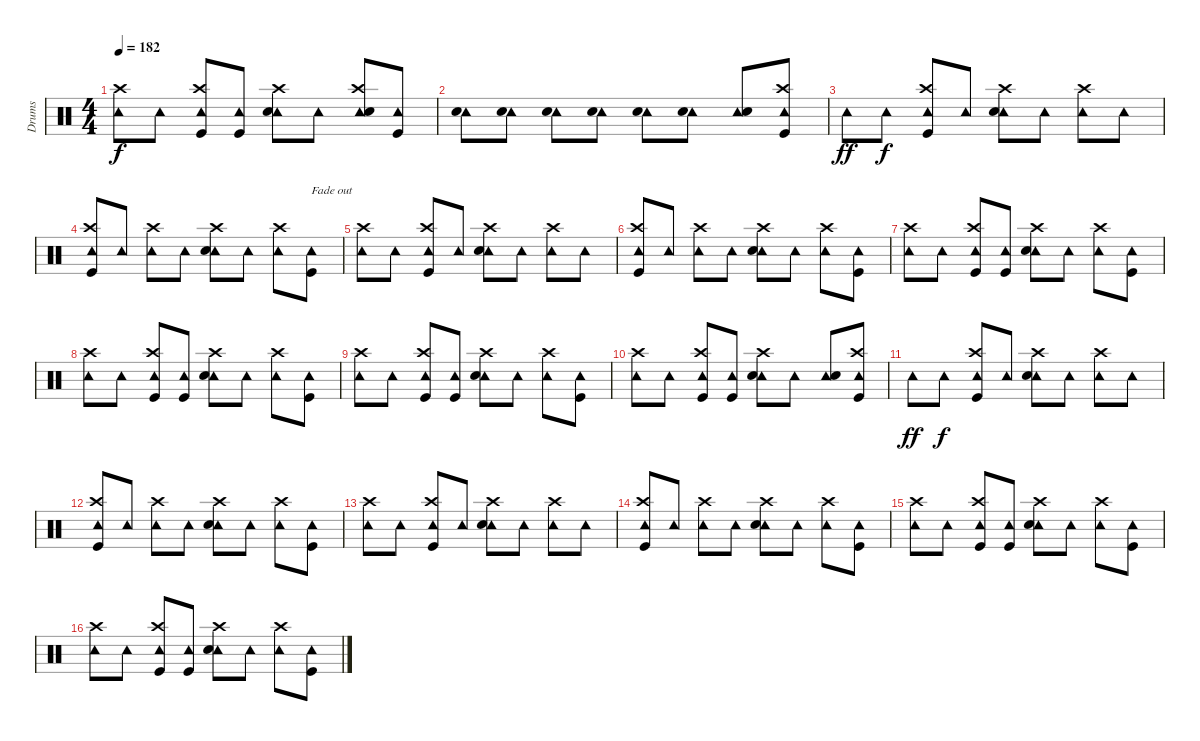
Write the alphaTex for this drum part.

\track ("Drums" "Drums") {instrument percussion}
\staff {score}
\articulation defaults
\ts (4 4)
\tempo 182
\clef neutral
\ks c
("Tambourine (hit)" "Crash high (hit)").8{dy f} "Tambourine (hit)".8 ("Tambourine (hit)" "Crash high (hit)" "Kick (hit)").8 ("Tambourine (hit)" "Kick (hit)").8 ("Tambourine (hit)" "Crash high (hit)" "Electric Snare (hit)").8 "Tambourine (hit)".8 ("Tambourine (hit)" "Electric Snare (hit)" "Crash high (hit)").8 ("Tambourine (hit)" "Kick (hit)").8 |
("Tambourine (hit)" "Electric Snare (hit)").8 ("Tambourine (hit)" "Electric Snare (hit)").8 ("Tambourine (hit)" "Electric Snare (hit)").8 ("Tambourine (hit)" "Electric Snare (hit)").8 ("Tambourine (hit)" "Electric Snare (hit)").8 ("Tambourine (hit)" "Electric Snare (hit)").8 ("Tambourine (hit)" "Electric Snare (hit)").8 ("Tambourine (hit)" "Crash high (hit)" "Kick (hit)").8 |
"Tambourine (hit)".8{dy ff} "Tambourine (hit)".8{dy f} ("Tambourine (hit)" "Crash high (hit)" "Kick (hit)").8 "Tambourine (hit)".8 ("Tambourine (hit)" "Crash high (hit)" "Electric Snare (hit)").8 "Tambourine (hit)".8 ("Tambourine (hit)" "Crash high (hit)").8 "Tambourine (hit)".8 |
("Tambourine (hit)" "Kick (hit)" "Crash high (hit)").8 "Tambourine (hit)".8 ("Tambourine (hit)" "Crash high (hit)").8 "Tambourine (hit)".8 ("Tambourine (hit)" "Crash high (hit)" "Electric Snare (hit)").8 "Tambourine (hit)".8 ("Tambourine (hit)" "Crash high (hit)").8 ("Tambourine (hit)" "Kick (hit)").8{txt "Fade out"} |
("Tambourine (hit)" "Crash high (hit)").8 "Tambourine (hit)".8 ("Tambourine (hit)" "Crash high (hit)" "Kick (hit)").8 "Tambourine (hit)".8 ("Tambourine (hit)" "Crash high (hit)" "Electric Snare (hit)").8 "Tambourine (hit)".8 ("Tambourine (hit)" "Crash high (hit)").8 "Tambourine (hit)".8 |
("Tambourine (hit)" "Kick (hit)" "Crash high (hit)").8 "Tambourine (hit)".8 ("Tambourine (hit)" "Crash high (hit)").8 "Tambourine (hit)".8 ("Tambourine (hit)" "Crash high (hit)" "Electric Snare (hit)").8 "Tambourine (hit)".8 ("Tambourine (hit)" "Crash high (hit)").8 ("Tambourine (hit)" "Kick (hit)").8 |
("Tambourine (hit)" "Crash high (hit)").8 "Tambourine (hit)".8 ("Tambourine (hit)" "Crash high (hit)" "Kick (hit)").8 ("Tambourine (hit)" "Kick (hit)").8 ("Tambourine (hit)" "Crash high (hit)" "Electric Snare (hit)").8 "Tambourine (hit)".8 ("Tambourine (hit)" "Crash high (hit)").8 ("Tambourine (hit)" "Kick (hit)").8 |
("Tambourine (hit)" "Crash high (hit)").8 "Tambourine (hit)".8 ("Tambourine (hit)" "Crash high (hit)" "Kick (hit)").8 ("Tambourine (hit)" "Kick (hit)").8 ("Tambourine (hit)" "Crash high (hit)" "Electric Snare (hit)").8 "Tambourine (hit)".8 ("Tambourine (hit)" "Crash high (hit)").8 ("Tambourine (hit)" "Kick (hit)").8 |
("Tambourine (hit)" "Crash high (hit)").8 "Tambourine (hit)".8 ("Tambourine (hit)" "Crash high (hit)" "Kick (hit)").8 ("Tambourine (hit)" "Kick (hit)").8 ("Tambourine (hit)" "Crash high (hit)" "Electric Snare (hit)").8 "Tambourine (hit)".8 ("Tambourine (hit)" "Crash high (hit)").8 ("Tambourine (hit)" "Kick (hit)").8 |
("Tambourine (hit)" "Crash high (hit)").8 "Tambourine (hit)".8 ("Tambourine (hit)" "Crash high (hit)" "Kick (hit)").8 ("Tambourine (hit)" "Kick (hit)").8 ("Tambourine (hit)" "Crash high (hit)" "Electric Snare (hit)").8 "Tambourine (hit)".8 ("Tambourine (hit)" "Electric Snare (hit)").8 ("Tambourine (hit)" "Crash high (hit)" "Kick (hit)").8 |
"Tambourine (hit)".8{dy ff} "Tambourine (hit)".8{dy f} ("Tambourine (hit)" "Crash high (hit)" "Kick (hit)").8 "Tambourine (hit)".8 ("Tambourine (hit)" "Crash high (hit)" "Electric Snare (hit)").8 "Tambourine (hit)".8 ("Tambourine (hit)" "Crash high (hit)").8 "Tambourine (hit)".8 |
("Tambourine (hit)" "Kick (hit)" "Crash high (hit)").8 "Tambourine (hit)".8 ("Tambourine (hit)" "Crash high (hit)").8 "Tambourine (hit)".8 ("Tambourine (hit)" "Crash high (hit)" "Electric Snare (hit)").8 "Tambourine (hit)".8 ("Tambourine (hit)" "Crash high (hit)").8 ("Tambourine (hit)" "Kick (hit)").8 |
("Tambourine (hit)" "Crash high (hit)").8 "Tambourine (hit)".8 ("Tambourine (hit)" "Crash high (hit)" "Kick (hit)").8 "Tambourine (hit)".8 ("Tambourine (hit)" "Crash high (hit)" "Electric Snare (hit)").8 "Tambourine (hit)".8 ("Tambourine (hit)" "Crash high (hit)").8 "Tambourine (hit)".8 |
("Tambourine (hit)" "Kick (hit)" "Crash high (hit)").8 "Tambourine (hit)".8 ("Tambourine (hit)" "Crash high (hit)").8 "Tambourine (hit)".8 ("Tambourine (hit)" "Crash high (hit)" "Electric Snare (hit)").8 "Tambourine (hit)".8 ("Tambourine (hit)" "Crash high (hit)").8 ("Tambourine (hit)" "Kick (hit)").8 |
("Tambourine (hit)" "Crash high (hit)").8 "Tambourine (hit)".8 ("Tambourine (hit)" "Crash high (hit)" "Kick (hit)").8 ("Tambourine (hit)" "Kick (hit)").8 ("Tambourine (hit)" "Crash high (hit)" "Electric Snare (hit)").8 "Tambourine (hit)".8 ("Tambourine (hit)" "Crash high (hit)").8 ("Tambourine (hit)" "Kick (hit)").8 |
("Tambourine (hit)" "Crash high (hit)").8 "Tambourine (hit)".8 ("Tambourine (hit)" "Crash high (hit)" "Kick (hit)").8 ("Tambourine (hit)" "Kick (hit)").8 ("Tambourine (hit)" "Crash high (hit)" "Electric Snare (hit)").8 "Tambourine (hit)".8 ("Tambourine (hit)" "Crash high (hit)").8 ("Tambourine (hit)" "Kick (hit)").8
